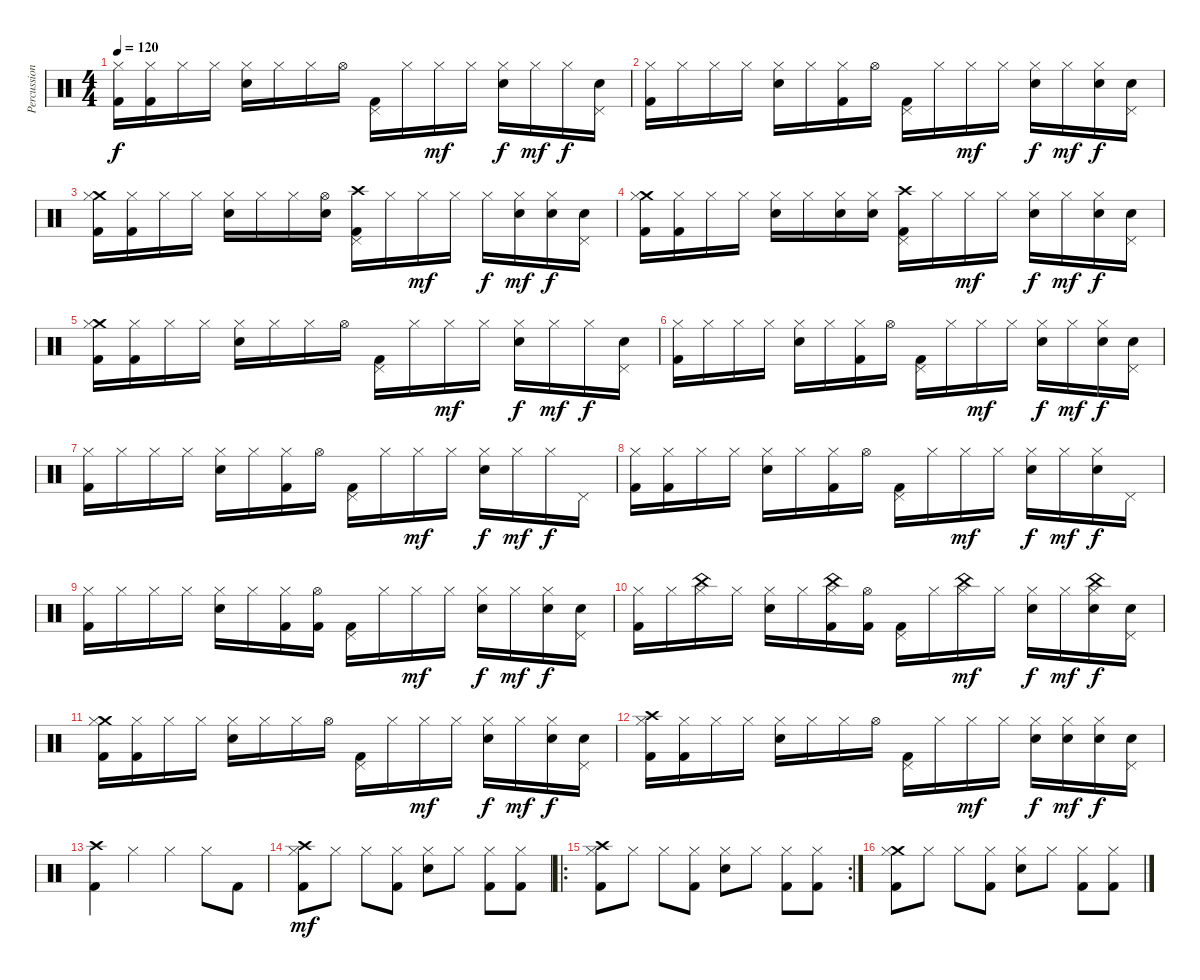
\track ("Percussioni" "Percussion") {instrument percussion}
\staff {score}
\articulation defaults
\ts (4 4)
\tempo 120
\clef neutral
\ks c
("Hi-Hat (closed)" "Kick (hit) 2").16{dy f} ("Hi-Hat (closed)" "Kick (hit) 2").16 "Hi-Hat (closed)".16 "Hi-Hat (closed)".16 ("Hi-Hat (closed)" "Metronome (bell)").16 "Hi-Hat (closed)".16 "Hi-Hat (closed)".16 "Hi-Hat (open)".16 ("Pedal Hi-Hat (hit)" "Kick (hit) 2").16 "Hi-Hat (closed)".16 "Hi-Hat (closed)".16{dy mf} "Hi-Hat (closed)".16 ("Hi-Hat (closed)" "Metronome (bell)").16{dy f} "Hi-Hat (closed)".16{dy mf} "Hi-Hat (closed)".16{dy f} ("Pedal Hi-Hat (hit)" "Metronome (bell)").16 |
("Hi-Hat (closed)" "Kick (hit) 2").16 "Hi-Hat (closed)".16 "Hi-Hat (closed)".16 "Hi-Hat (closed)".16 ("Hi-Hat (closed)" "Metronome (bell)").16 "Hi-Hat (closed)".16 ("Hi-Hat (closed)" "Kick (hit) 2").16 "Hi-Hat (open)".16 ("Pedal Hi-Hat (hit)" "Kick (hit) 2").16 "Hi-Hat (closed)".16 "Hi-Hat (closed)".16{dy mf} "Hi-Hat (closed)".16 ("Hi-Hat (closed)" "Metronome (bell)").16{dy f} "Hi-Hat (closed)".16{dy mf} ("Hi-Hat (closed)" "Metronome (bell)").16{dy f} ("Pedal Hi-Hat (hit)" "Metronome (bell)").16 |
("Crash medium (hit)" "Hi-Hat (closed)" "Kick (hit) 2").16 ("Hi-Hat (closed)" "Kick (hit) 2").16 "Hi-Hat (closed)".16 "Hi-Hat (closed)".16 ("Hi-Hat (closed)" "Metronome (bell)").16 "Hi-Hat (closed)".16 "Hi-Hat (closed)".16 ("Hi-Hat (open)" "Metronome (bell)").16 ("Crash high (hit)" "Pedal Hi-Hat (hit)" "Kick (hit) 2").16 "Hi-Hat (closed)".16 "Hi-Hat (closed)".16{dy mf} "Hi-Hat (closed)".16 "Hi-Hat (closed)".16{dy f} ("Hi-Hat (closed)" "Metronome (bell)").16{dy mf} ("Hi-Hat (closed)" "Metronome (bell)").16{dy f} ("Pedal Hi-Hat (hit)" "Metronome (bell)").16 |
("Crash medium (hit)" "Hi-Hat (closed)" "Kick (hit) 2").16 ("Hi-Hat (closed)" "Kick (hit) 2").16 "Hi-Hat (closed)".16 "Hi-Hat (closed)".16 ("Hi-Hat (closed)" "Metronome (bell)").16 "Hi-Hat (closed)".16 ("Hi-Hat (closed)" "Metronome (bell)").16 ("Hi-Hat (closed)" "Metronome (bell)").16 ("Crash high (hit)" "Pedal Hi-Hat (hit)" "Kick (hit) 2").16 "Hi-Hat (closed)".16 "Hi-Hat (closed)".16{dy mf} "Hi-Hat (closed)".16 ("Hi-Hat (closed)" "Metronome (bell)").16{dy f} "Hi-Hat (closed)".16{dy mf} ("Hi-Hat (closed)" "Metronome (bell)").16{dy f} ("Pedal Hi-Hat (hit)" "Metronome (bell)").16 |
("Crash medium (hit)" "Hi-Hat (closed)" "Kick (hit) 2").16 ("Hi-Hat (closed)" "Kick (hit) 2").16 "Hi-Hat (closed)".16 "Hi-Hat (closed)".16 ("Hi-Hat (closed)" "Metronome (bell)").16 "Hi-Hat (closed)".16 "Hi-Hat (closed)".16 "Hi-Hat (open)".16 ("Pedal Hi-Hat (hit)" "Kick (hit) 2").16 "Hi-Hat (closed)".16 "Hi-Hat (closed)".16{dy mf} "Hi-Hat (closed)".16 ("Hi-Hat (closed)" "Metronome (bell)").16{dy f} "Hi-Hat (closed)".16{dy mf} "Hi-Hat (closed)".16{dy f} ("Pedal Hi-Hat (hit)" "Metronome (bell)").16 |
("Hi-Hat (closed)" "Kick (hit) 2").16 "Hi-Hat (closed)".16 "Hi-Hat (closed)".16 "Hi-Hat (closed)".16 ("Hi-Hat (closed)" "Metronome (bell)").16 "Hi-Hat (closed)".16 ("Hi-Hat (closed)" "Kick (hit) 2").16 "Hi-Hat (open)".16 ("Pedal Hi-Hat (hit)" "Kick (hit) 2").16 "Hi-Hat (closed)".16 "Hi-Hat (closed)".16{dy mf} "Hi-Hat (closed)".16 ("Hi-Hat (closed)" "Metronome (bell)").16{dy f} "Hi-Hat (closed)".16{dy mf} ("Hi-Hat (closed)" "Metronome (bell)").16{dy f} ("Pedal Hi-Hat (hit)" "Metronome (bell)").16 |
("Hi-Hat (closed)" "Kick (hit) 2").16 "Hi-Hat (closed)".16 "Hi-Hat (closed)".16 "Hi-Hat (closed)".16 ("Hi-Hat (closed)" "Metronome (bell)").16 "Hi-Hat (closed)".16 ("Hi-Hat (closed)" "Kick (hit) 2").16 "Hi-Hat (open)".16 ("Pedal Hi-Hat (hit)" "Kick (hit) 2").16 "Hi-Hat (closed)".16 "Hi-Hat (closed)".16{dy mf} "Hi-Hat (closed)".16 ("Hi-Hat (closed)" "Metronome (bell)").16{dy f} "Hi-Hat (closed)".16{dy mf} "Hi-Hat (closed)".16{dy f} "Pedal Hi-Hat (hit)".16 |
("Hi-Hat (closed)" "Kick (hit) 2").16 ("Hi-Hat (closed)" "Kick (hit) 2").16 "Hi-Hat (closed)".16 "Hi-Hat (closed)".16 ("Hi-Hat (closed)" "Metronome (bell)").16 "Hi-Hat (closed)".16 ("Hi-Hat (closed)" "Kick (hit) 2").16 "Hi-Hat (open)".16 ("Pedal Hi-Hat (hit)" "Kick (hit) 2").16 "Hi-Hat (closed)".16 "Hi-Hat (closed)".16{dy mf} "Hi-Hat (closed)".16 ("Hi-Hat (closed)" "Metronome (bell)").16{dy f} "Hi-Hat (closed)".16{dy mf} ("Hi-Hat (closed)" "Metronome (bell)").16{dy f} "Pedal Hi-Hat (hit)".16 |
("Hi-Hat (closed)" "Kick (hit) 2").16 "Hi-Hat (closed)".16 "Hi-Hat (closed)".16 "Hi-Hat (closed)".16 ("Hi-Hat (closed)" "Metronome (bell)").16 "Hi-Hat (closed)".16 ("Hi-Hat (closed)" "Kick (hit) 2").16 ("Hi-Hat (open)" "Kick (hit) 2").16 ("Pedal Hi-Hat (hit)" "Kick (hit) 2").16 "Hi-Hat (closed)".16 "Hi-Hat (closed)".16{dy mf} "Hi-Hat (closed)".16 ("Hi-Hat (closed)" "Metronome (bell)").16{dy f} "Hi-Hat (closed)".16{dy mf} ("Hi-Hat (closed)" "Metronome (bell)").16{dy f} ("Pedal Hi-Hat (hit)" "Metronome (bell)").16 |
("Hi-Hat (closed)" "Kick (hit) 2").16 "Hi-Hat (closed)".16 ("China (hit)" "Hi-Hat (closed)").16 "Hi-Hat (closed)".16 ("Hi-Hat (closed)" "Metronome (bell)").16 "Hi-Hat (closed)".16 ("China (hit)" "Hi-Hat (closed)" "Kick (hit) 2").16 ("Hi-Hat (open)" "Kick (hit) 2").16 ("Pedal Hi-Hat (hit)" "Kick (hit) 2").16 "Hi-Hat (closed)".16 ("China (hit)" "Hi-Hat (closed)").16{dy mf} "Hi-Hat (closed)".16 ("Hi-Hat (closed)" "Metronome (bell)").16{dy f} "Hi-Hat (closed)".16{dy mf} ("China (hit)" "Hi-Hat (closed)" "Metronome (bell)").16{dy f} ("Pedal Hi-Hat (hit)" "Metronome (bell)").16 |
("Crash medium (hit)" "Hi-Hat (closed)" "Kick (hit) 2").16 ("Hi-Hat (closed)" "Kick (hit) 2").16 "Hi-Hat (closed)".16 "Hi-Hat (closed)".16 ("Hi-Hat (closed)" "Metronome (bell)").16 "Hi-Hat (closed)".16 "Hi-Hat (closed)".16 "Hi-Hat (open)".16 ("Pedal Hi-Hat (hit)" "Kick (hit) 2").16 "Hi-Hat (closed)".16 "Hi-Hat (closed)".16{dy mf} "Hi-Hat (closed)".16 ("Hi-Hat (closed)" "Metronome (bell)").16{dy f} "Hi-Hat (closed)".16{dy mf} ("Hi-Hat (closed)" "Metronome (bell)").16{dy f} ("Pedal Hi-Hat (hit)" "Metronome (bell)").16 |
("Crash high (hit)" "Hi-Hat (closed)" "Kick (hit) 2").16 ("Hi-Hat (closed)" "Kick (hit) 2").16 "Hi-Hat (closed)".16 "Hi-Hat (closed)".16 ("Hi-Hat (closed)" "Metronome (bell)").16 "Hi-Hat (closed)".16 "Hi-Hat (closed)".16 "Hi-Hat (open)".16 ("Pedal Hi-Hat (hit)" "Kick (hit) 2").16 "Hi-Hat (closed)".16 "Hi-Hat (closed)".16{dy mf} "Hi-Hat (closed)".16 ("Hi-Hat (closed)" "Metronome (bell)").16{dy f} ("Hi-Hat (closed)" "Metronome (bell)").16{dy mf} ("Hi-Hat (closed)" "Metronome (bell)").16{dy f} ("Pedal Hi-Hat (hit)" "Metronome (bell)").16 |
("Crash high (hit)" "Kick (hit) 2").4 "Hi-Hat (closed)".4 "Hi-Hat (closed)".4 "Hi-Hat (closed)".8 "Kick (hit) 2".8 |
("Crash high (hit)" "Kick (hit) 2" "Hi-Hat (closed)").8{dy mf} "Hi-Hat (closed)".8 "Hi-Hat (closed)".8 ("Kick (hit) 2" "Hi-Hat (closed)").8 ("Metronome (bell)" "Hi-Hat (closed)").8 "Hi-Hat (closed)".8 ("Kick (hit) 2" "Hi-Hat (closed)").8 ("Kick (hit) 2" "Hi-Hat (closed)").8 |
\ro
\rc 2
("Crash high (hit)" "Kick (hit) 2" "Hi-Hat (closed)").8 "Hi-Hat (closed)".8 "Hi-Hat (closed)".8 ("Kick (hit) 2" "Hi-Hat (closed)").8 ("Metronome (bell)" "Hi-Hat (closed)").8 "Hi-Hat (closed)".8 ("Kick (hit) 2" "Hi-Hat (closed)").8 ("Kick (hit) 2" "Hi-Hat (closed)").8 |
("Crash medium (hit)" "Kick (hit) 2" "Hi-Hat (closed)").8 "Hi-Hat (closed)".8 "Hi-Hat (closed)".8 ("Kick (hit) 2" "Hi-Hat (closed)").8 ("Metronome (bell)" "Hi-Hat (closed)").8 "Hi-Hat (closed)".8 ("Kick (hit) 2" "Hi-Hat (closed)").8 ("Kick (hit) 2" "Hi-Hat (closed)").8
